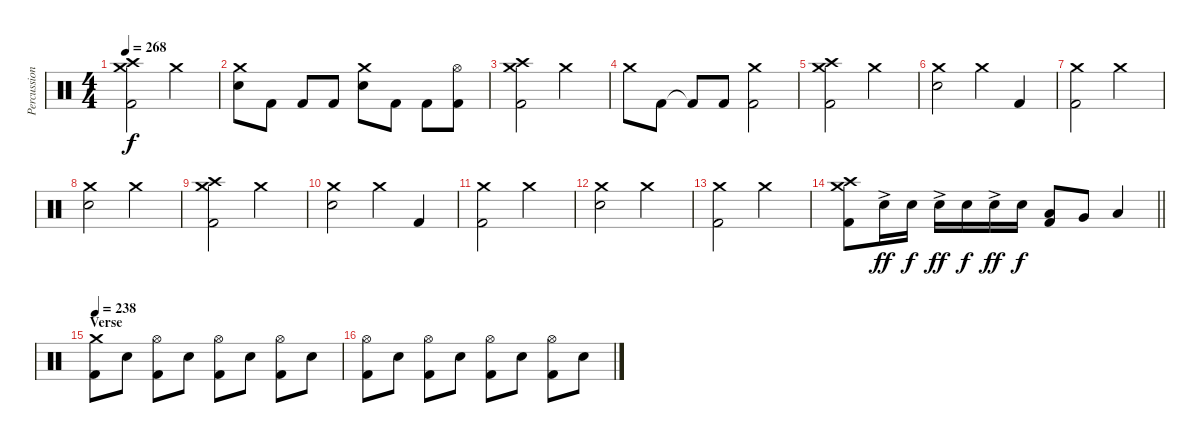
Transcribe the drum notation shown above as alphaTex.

\track ("Percussion" "Percussion") {instrument percussion}
\staff {score}
\articulation defaults
\ts (4 4)
\tempo 268
\clef neutral
\ks c
("Crash medium (hit)" "Crash high (hit)" "Kick (hit) 2").2{dy f} "Crash medium (hit)".2 |
("Crash medium (hit)" "Electric Snare (hit)").8 "Kick (hit) 2".8 "Kick (hit) 2".8 "Kick (hit) 2".8 ("Crash medium (hit)" "Electric Snare (hit)").8 "Kick (hit) 2".8 "Kick (hit) 2".8 ("Hi-Hat (open)" "Kick (hit) 2").8 |
("Crash medium (hit)" "Crash high (hit)" "Kick (hit) 2").2 "Crash medium (hit)".2 |
"Crash medium (hit)".8 "Kick (hit) 2".8 "Kick (hit) 2"{t}.8 "Kick (hit) 2".8 ("Crash medium (hit)" "Kick (hit) 2").2 |
("Crash medium (hit)" "Crash high (hit)" "Kick (hit) 2").2 "Crash medium (hit)".2 |
("Crash medium (hit)" "Electric Snare (hit)").2 "Crash medium (hit)".4 "Kick (hit) 2".4 |
("Crash medium (hit)" "Kick (hit) 2").2 "Crash medium (hit)".2 |
("Crash medium (hit)" "Electric Snare (hit)").2 "Crash medium (hit)".2 |
("Crash medium (hit)" "Crash high (hit)" "Kick (hit) 2").2 "Crash medium (hit)".2 |
("Crash medium (hit)" "Electric Snare (hit)").2 "Crash medium (hit)".4 "Kick (hit) 2".4 |
("Crash medium (hit)" "Kick (hit) 2").2 "Crash medium (hit)".2 |
("Crash medium (hit)" "Electric Snare (hit)").2 "Crash medium (hit)".2 |
("Crash medium (hit)" "Kick (hit) 2").2 "Crash medium (hit)".2 |
\barLineRight lightlight
("Crash medium (hit)" "Crash high (hit)" "Kick (hit) 2").8 "Electric Snare (hit)"{ac}.16{dy ff} "Electric Snare (hit)".16{dy f} "Electric Snare (hit)"{ac}.16{dy ff} "Electric Snare (hit)".16{dy f} "Electric Snare (hit)"{ac}.16{dy ff} "Electric Snare (hit)".16{dy f} ("Low Tom (hit)" "Kick (hit) 2").8 "Very Low Tom (hit)".8 "Low Floor Tom (hit)".4 |
\section ("" "Verse")
\tempo 238
("Crash medium (hit)" "Kick (hit) 2").8 "Electric Snare (hit)".8 ("Hi-Hat (open)" "Kick (hit) 2").8 "Electric Snare (hit)".8 ("Hi-Hat (open)" "Kick (hit) 2").8 "Electric Snare (hit)".8 ("Hi-Hat (open)" "Kick (hit) 2").8 "Electric Snare (hit)".8 |
("Hi-Hat (open)" "Kick (hit) 2").8 "Electric Snare (hit)".8 ("Hi-Hat (open)" "Kick (hit) 2").8 "Electric Snare (hit)".8 ("Hi-Hat (open)" "Kick (hit) 2").8 "Electric Snare (hit)".8 ("Hi-Hat (open)" "Kick (hit) 2").8 "Electric Snare (hit)".8
